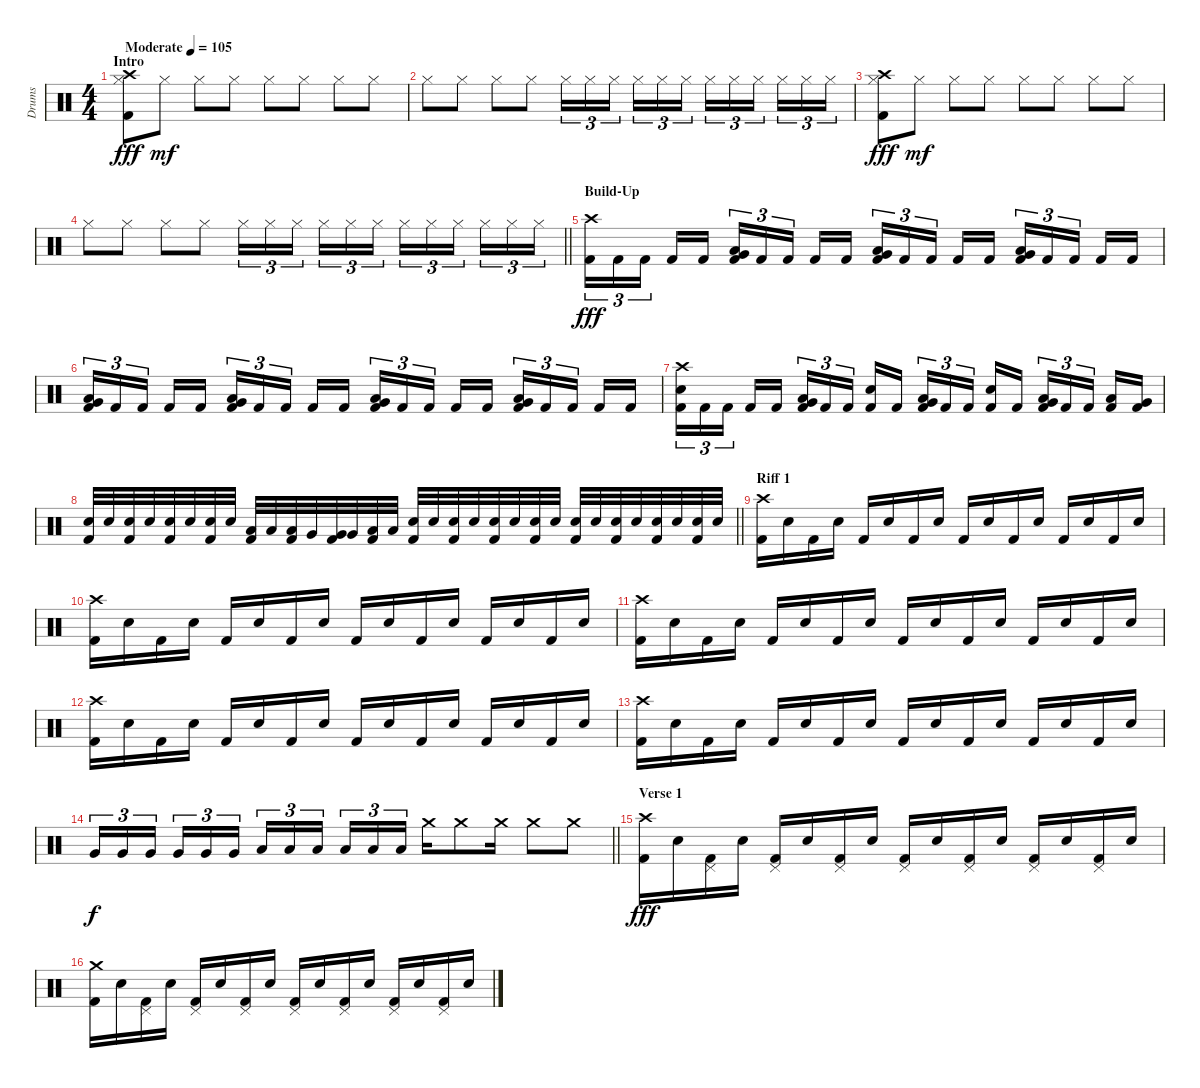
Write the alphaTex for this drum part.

\track ("Drums" "Drums") {instrument percussion}
\staff {score}
\articulation defaults
\ts (4 4)
\section ("" "Intro")
\tempo (105 "Moderate")
\clef neutral
\ks c
("Crash high (hit)" "Hi-Hat (closed)" "Kick (hit) 2").8{dy fff} "Hi-Hat (closed)".8{dy mf} "Hi-Hat (closed)".8 "Hi-Hat (closed)".8 "Hi-Hat (closed)".8 "Hi-Hat (closed)".8 "Hi-Hat (closed)".8 "Hi-Hat (closed)".8 |
"Hi-Hat (closed)".8 "Hi-Hat (closed)".8 "Hi-Hat (closed)".8 "Hi-Hat (closed)".8 "Hi-Hat (closed)".16{tu (3 2)} "Hi-Hat (closed)".16{tu (3 2)} "Hi-Hat (closed)".16{tu (3 2) beam splitsecondary} "Hi-Hat (closed)".16{tu (3 2)} "Hi-Hat (closed)".16{tu (3 2)} "Hi-Hat (closed)".16{tu (3 2)} "Hi-Hat (closed)".16{tu (3 2)} "Hi-Hat (closed)".16{tu (3 2)} "Hi-Hat (closed)".16{tu (3 2) beam splitsecondary} "Hi-Hat (closed)".16{tu (3 2)} "Hi-Hat (closed)".16{tu (3 2)} "Hi-Hat (closed)".16{tu (3 2)} |
("Crash high (hit)" "Hi-Hat (closed)" "Kick (hit) 2").8{dy fff} "Hi-Hat (closed)".8{dy mf} "Hi-Hat (closed)".8 "Hi-Hat (closed)".8 "Hi-Hat (closed)".8 "Hi-Hat (closed)".8 "Hi-Hat (closed)".8 "Hi-Hat (closed)".8 |
\barLineRight lightlight "Hi-Hat (closed)".8 "Hi-Hat (closed)".8 "Hi-Hat (closed)".8 "Hi-Hat (closed)".8 "Hi-Hat (closed)".16{tu (3 2)} "Hi-Hat (closed)".16{tu (3 2)} "Hi-Hat (closed)".16{tu (3 2) beam splitsecondary} "Hi-Hat (closed)".16{tu (3 2)} "Hi-Hat (closed)".16{tu (3 2)} "Hi-Hat (closed)".16{tu (3 2)} "Hi-Hat (closed)".16{tu (3 2)} "Hi-Hat (closed)".16{tu (3 2)} "Hi-Hat (closed)".16{tu (3 2) beam splitsecondary} "Hi-Hat (closed)".16{tu (3 2)} "Hi-Hat (closed)".16{tu (3 2)} "Hi-Hat (closed)".16{tu (3 2)}
|
\section ("" "Build-Up")
("Crash high (hit)" "Kick (hit) 2").16{tu (3 2) dy fff} "Kick (hit) 2".16{tu (3 2)} "Kick (hit) 2".16{tu (3 2) beam splitsecondary} "Kick (hit) 2".16 "Kick (hit) 2".16 ("Low Floor Tom (hit)" "Very Low Tom (hit)" "Kick (hit) 2").16{tu (3 2)} "Kick (hit) 2".16{tu (3 2)} "Kick (hit) 2".16{tu (3 2) beam splitsecondary} "Kick (hit) 2".16 "Kick (hit) 2".16 ("Low Floor Tom (hit)" "Very Low Tom (hit)" "Kick (hit) 2").16{tu (3 2)} "Kick (hit) 2".16{tu (3 2)} "Kick (hit) 2".16{tu (3 2) beam splitsecondary} "Kick (hit) 2".16 "Kick (hit) 2".16 ("Low Floor Tom (hit)" "Very Low Tom (hit)" "Kick (hit) 2").16{tu (3 2)} "Kick (hit) 2".16{tu (3 2)} "Kick (hit) 2".16{tu (3 2) beam splitsecondary} "Kick (hit) 2".16 "Kick (hit) 2".16 |
("Low Floor Tom (hit)" "Very Low Tom (hit)" "Kick (hit) 2").16{tu (3 2)} "Kick (hit) 2".16{tu (3 2)} "Kick (hit) 2".16{tu (3 2) beam splitsecondary} "Kick (hit) 2".16 "Kick (hit) 2".16 ("Low Floor Tom (hit)" "Very Low Tom (hit)" "Kick (hit) 2").16{tu (3 2)} "Kick (hit) 2".16{tu (3 2)} "Kick (hit) 2".16{tu (3 2) beam splitsecondary} "Kick (hit) 2".16 "Kick (hit) 2".16 ("Low Floor Tom (hit)" "Very Low Tom (hit)" "Kick (hit) 2").16{tu (3 2)} "Kick (hit) 2".16{tu (3 2)} "Kick (hit) 2".16{tu (3 2) beam splitsecondary} "Kick (hit) 2".16 "Kick (hit) 2".16 ("Low Floor Tom (hit)" "Very Low Tom (hit)" "Kick (hit) 2").16{tu (3 2)} "Kick (hit) 2".16{tu (3 2)} "Kick (hit) 2".16{tu (3 2) beam splitsecondary} "Kick (hit) 2".16 "Kick (hit) 2".16 |
("Crash high (hit)" "Electric Snare (hit)" "Kick (hit) 2").16{tu (3 2)} "Kick (hit) 2".16{tu (3 2)} "Kick (hit) 2".16{tu (3 2) beam splitsecondary} "Kick (hit) 2".16 "Kick (hit) 2".16 ("Low Floor Tom (hit)" "Very Low Tom (hit)" "Kick (hit) 2").16{tu (3 2)} "Kick (hit) 2".16{tu (3 2)} "Kick (hit) 2".16{tu (3 2) beam splitsecondary} ("Electric Snare (hit)" "Kick (hit) 2").16 "Kick (hit) 2".16 ("Low Floor Tom (hit)" "Very Low Tom (hit)" "Kick (hit) 2").16{tu (3 2)} "Kick (hit) 2".16{tu (3 2)} "Kick (hit) 2".16{tu (3 2) beam splitsecondary} ("Electric Snare (hit)" "Kick (hit) 2").16 "Kick (hit) 2".16 ("Low Floor Tom (hit)" "Very Low Tom (hit)" "Kick (hit) 2").16{tu (3 2)} "Kick (hit) 2".16{tu (3 2)} "Kick (hit) 2".16{tu (3 2) beam splitsecondary} ("Low Floor Tom (hit)" "Kick (hit) 2").16 ("Very Low Tom (hit)" "Kick (hit) 2").16 |
\barLineRight lightlight
("Electric Snare (hit)" "Kick (hit) 2").32 "Electric Snare (hit)".32 ("Electric Snare (hit)" "Kick (hit) 2").32 "Electric Snare (hit)".32 ("Electric Snare (hit)" "Kick (hit) 2").32 "Electric Snare (hit)".32 ("Electric Snare (hit)" "Kick (hit) 2").32 "Electric Snare (hit)".32 ("Low Floor Tom (hit)" "Kick (hit) 2").32 "Low Floor Tom (hit)".32 ("Low Floor Tom (hit)" "Kick (hit) 2").32 "Very Low Tom (hit)".32 ("Very Low Tom (hit)" "Kick (hit) 2").32 "Very Low Tom (hit)".32 ("Low Tom (hit)" "Kick (hit) 2").32 "Low Tom (hit)".32 ("Electric Snare (hit)" "Kick (hit) 2").32 "Electric Snare (hit)".32 ("Electric Snare (hit)" "Kick (hit) 2").32 "Electric Snare (hit)".32 ("Electric Snare (hit)" "Kick (hit) 2").32 "Electric Snare (hit)".32 ("Electric Snare (hit)" "Kick (hit) 2").32 "Electric Snare (hit)".32 ("Electric Snare (hit)" "Kick (hit) 2").32 "Electric Snare (hit)".32 ("Electric Snare (hit)" "Kick (hit) 2").32 "Electric Snare (hit)".32 ("Electric Snare (hit)" "Kick (hit) 2").32 "Electric Snare (hit)".32 ("Electric Snare (hit)" "Kick (hit) 2").32 "Electric Snare (hit)".32 |
\section ("" "Riff 1")
("Crash high (hit)" "Kick (hit) 2").16 "Electric Snare (hit)".16 "Kick (hit) 2".16 "Electric Snare (hit)".16 "Kick (hit) 2".16 "Electric Snare (hit)".16 "Kick (hit) 2".16 "Electric Snare (hit)".16 "Kick (hit) 2".16 "Electric Snare (hit)".16 "Kick (hit) 2".16 "Electric Snare (hit)".16 "Kick (hit) 2".16 "Electric Snare (hit)".16 "Kick (hit) 2".16 "Electric Snare (hit)".16 |
("Crash high (hit)" "Kick (hit) 2").16 "Electric Snare (hit)".16 "Kick (hit) 2".16 "Electric Snare (hit)".16 "Kick (hit) 2".16 "Electric Snare (hit)".16 "Kick (hit) 2".16 "Electric Snare (hit)".16 "Kick (hit) 2".16 "Electric Snare (hit)".16 "Kick (hit) 2".16 "Electric Snare (hit)".16 "Kick (hit) 2".16 "Electric Snare (hit)".16 "Kick (hit) 2".16 "Electric Snare (hit)".16 |
("Crash high (hit)" "Kick (hit) 2").16 "Electric Snare (hit)".16 "Kick (hit) 2".16 "Electric Snare (hit)".16 "Kick (hit) 2".16 "Electric Snare (hit)".16 "Kick (hit) 2".16 "Electric Snare (hit)".16 "Kick (hit) 2".16 "Electric Snare (hit)".16 "Kick (hit) 2".16 "Electric Snare (hit)".16 "Kick (hit) 2".16 "Electric Snare (hit)".16 "Kick (hit) 2".16 "Electric Snare (hit)".16 |
("Crash high (hit)" "Kick (hit) 2").16 "Electric Snare (hit)".16 "Kick (hit) 2".16 "Electric Snare (hit)".16 "Kick (hit) 2".16 "Electric Snare (hit)".16 "Kick (hit) 2".16 "Electric Snare (hit)".16 "Kick (hit) 2".16 "Electric Snare (hit)".16 "Kick (hit) 2".16 "Electric Snare (hit)".16 "Kick (hit) 2".16 "Electric Snare (hit)".16 "Kick (hit) 2".16 "Electric Snare (hit)".16 |
("Crash high (hit)" "Kick (hit) 2").16 "Electric Snare (hit)".16 "Kick (hit) 2".16 "Electric Snare (hit)".16 "Kick (hit) 2".16 "Electric Snare (hit)".16 "Kick (hit) 2".16 "Electric Snare (hit)".16 "Kick (hit) 2".16 "Electric Snare (hit)".16 "Kick (hit) 2".16 "Electric Snare (hit)".16 "Kick (hit) 2".16 "Electric Snare (hit)".16 "Kick (hit) 2".16 "Electric Snare (hit)".16 |
\barLineRight lightlight "Very Low Tom (hit)".16{tu (3 2) dy f} "Very Low Tom (hit)".16{tu (3 2)} "Very Low Tom (hit)".16{tu (3 2) beam splitsecondary} "Very Low Tom (hit)".16{tu (3 2)} "Very Low Tom (hit)".16{tu (3 2)} "Very Low Tom (hit)".16{tu (3 2)} "Low Floor Tom (hit)".16{tu (3 2)} "Low Floor Tom (hit)".16{tu (3 2)} "Low Floor Tom (hit)".16{tu (3 2) beam splitsecondary} "Low Floor Tom (hit)".16{tu (3 2)} "Low Floor Tom (hit)".16{tu (3 2)} "Low Floor Tom (hit)".16{tu (3 2)} "Crash medium (hit)".16 "Crash medium (hit)".8 "Crash medium (hit)".16 "Crash medium (hit)".8 "Crash medium (hit)".8
|
\section ("" "Verse 1")
("Crash high (hit)" "Kick (hit) 2").16{dy fff} "Electric Snare (hit)".16 ("Pedal Hi-Hat (hit)" "Kick (hit) 2").16 "Electric Snare (hit)".16 ("Pedal Hi-Hat (hit)" "Kick (hit) 2").16 "Electric Snare (hit)".16 ("Pedal Hi-Hat (hit)" "Kick (hit) 2").16 "Electric Snare (hit)".16 ("Pedal Hi-Hat (hit)" "Kick (hit) 2").16 "Electric Snare (hit)".16 ("Pedal Hi-Hat (hit)" "Kick (hit) 2").16 "Electric Snare (hit)".16 ("Pedal Hi-Hat (hit)" "Kick (hit) 2").16 "Electric Snare (hit)".16 ("Pedal Hi-Hat (hit)" "Kick (hit) 2").16 "Electric Snare (hit)".16 |
("Crash medium (hit)" "Kick (hit) 2").16 "Electric Snare (hit)".16 ("Pedal Hi-Hat (hit)" "Kick (hit) 2").16 "Electric Snare (hit)".16 ("Pedal Hi-Hat (hit)" "Kick (hit) 2").16 "Electric Snare (hit)".16 ("Pedal Hi-Hat (hit)" "Kick (hit) 2").16 "Electric Snare (hit)".16 ("Pedal Hi-Hat (hit)" "Kick (hit) 2").16 "Electric Snare (hit)".16 ("Pedal Hi-Hat (hit)" "Kick (hit) 2").16 "Electric Snare (hit)".16 ("Pedal Hi-Hat (hit)" "Kick (hit) 2").16 "Electric Snare (hit)".16 ("Pedal Hi-Hat (hit)" "Kick (hit) 2").16 "Electric Snare (hit)".16
